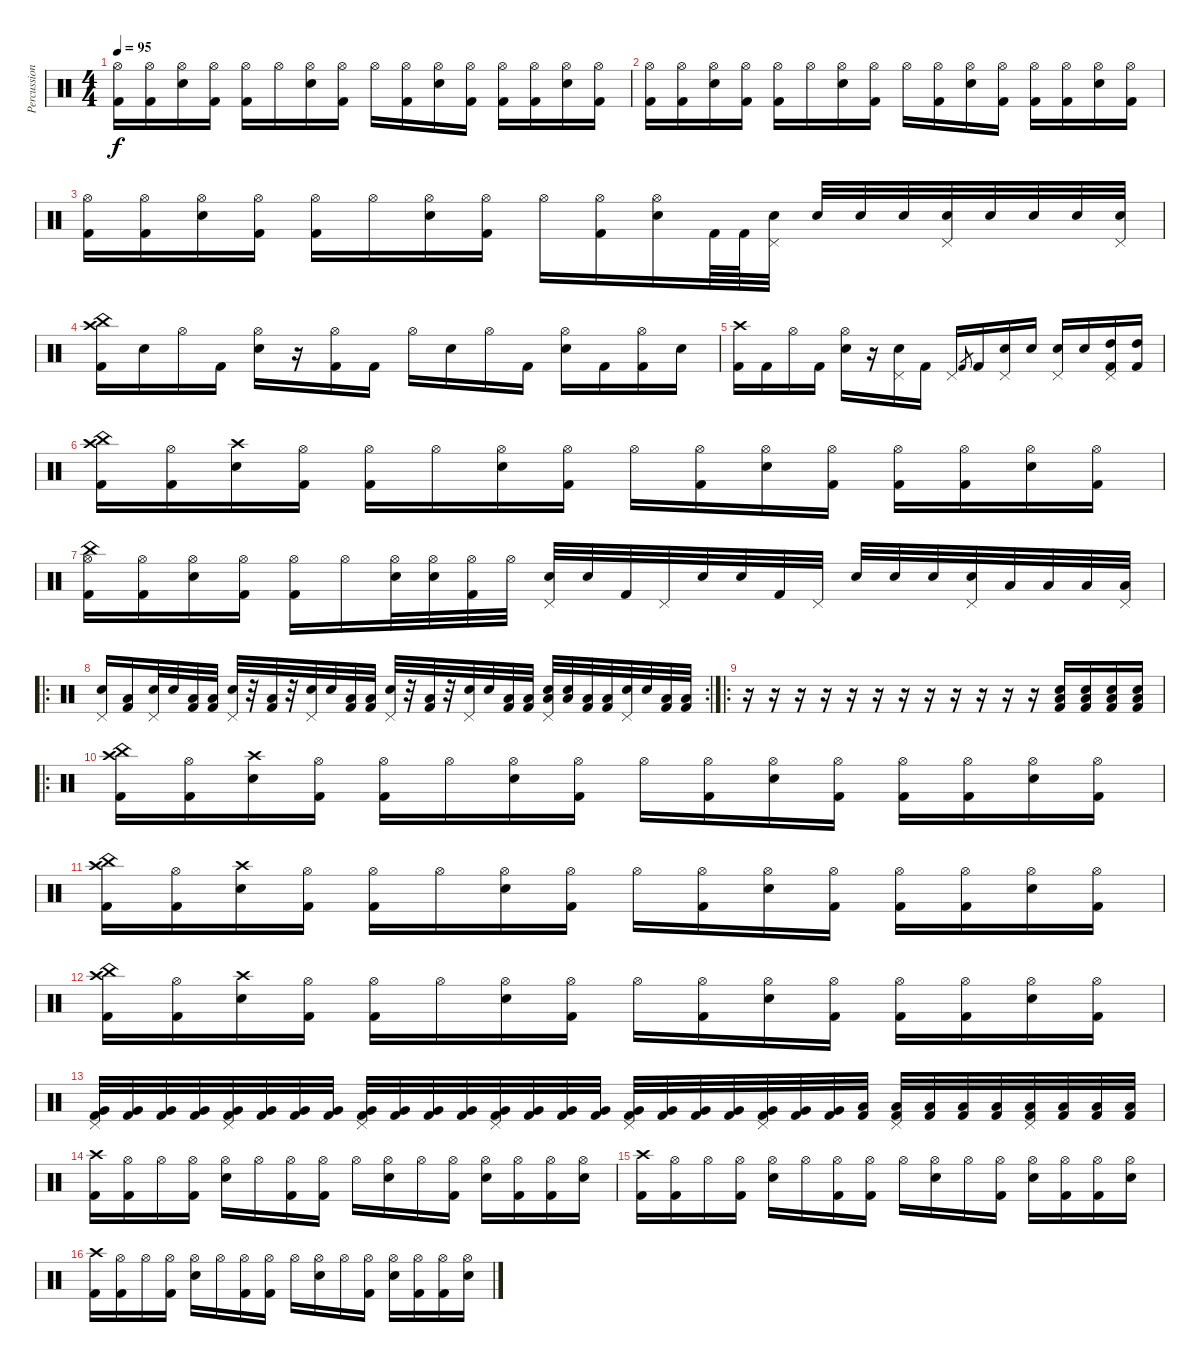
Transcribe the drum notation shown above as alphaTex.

\track ("Percussion" "Percussion") {instrument percussion}
\staff {score}
\articulation defaults
\ts (4 4)
\tempo 95
\clef neutral
\ks c
("Hi-Hat (open)" "Kick (hit) 2").16{dy f} ("Hi-Hat (open)" "Kick (hit) 2").16 ("Hi-Hat (open)" "Electric Snare (hit)").16 ("Hi-Hat (open)" "Kick (hit) 2").16 ("Hi-Hat (open)" "Kick (hit) 2").16 "Hi-Hat (open)".16 ("Hi-Hat (open)" "Electric Snare (hit)").16 ("Hi-Hat (open)" "Kick (hit) 2").16 "Hi-Hat (open)".16 ("Hi-Hat (open)" "Kick (hit) 2").16 ("Hi-Hat (open)" "Electric Snare (hit)").16 ("Hi-Hat (open)" "Kick (hit) 2").16 ("Hi-Hat (open)" "Kick (hit) 2").16 ("Hi-Hat (open)" "Kick (hit) 2").16 ("Hi-Hat (open)" "Electric Snare (hit)").16 ("Hi-Hat (open)" "Kick (hit) 2").16 |
("Hi-Hat (open)" "Kick (hit) 2").16 ("Hi-Hat (open)" "Kick (hit) 2").16 ("Hi-Hat (open)" "Electric Snare (hit)").16 ("Hi-Hat (open)" "Kick (hit) 2").16 ("Hi-Hat (open)" "Kick (hit) 2").16 "Hi-Hat (open)".16 ("Hi-Hat (open)" "Electric Snare (hit)").16 ("Hi-Hat (open)" "Kick (hit) 2").16 "Hi-Hat (open)".16 ("Hi-Hat (open)" "Kick (hit) 2").16 ("Hi-Hat (open)" "Electric Snare (hit)").16 ("Hi-Hat (open)" "Kick (hit) 2").16 ("Hi-Hat (open)" "Kick (hit) 2").16 ("Hi-Hat (open)" "Kick (hit) 2").16 ("Hi-Hat (open)" "Electric Snare (hit)").16 ("Hi-Hat (open)" "Kick (hit) 2").16 |
("Hi-Hat (open)" "Kick (hit) 2").16 ("Hi-Hat (open)" "Kick (hit) 2").16 ("Hi-Hat (open)" "Electric Snare (hit)").16 ("Hi-Hat (open)" "Kick (hit) 2").16 ("Hi-Hat (open)" "Kick (hit) 2").16 "Hi-Hat (open)".16 ("Hi-Hat (open)" "Electric Snare (hit)").16 ("Hi-Hat (open)" "Kick (hit) 2").16 "Hi-Hat (open)".16 ("Hi-Hat (open)" "Kick (hit) 2").16 ("Hi-Hat (open)" "Electric Snare (hit)").16 "Kick (hit) 2".64 "Kick (hit) 2".64 ("Pedal Hi-Hat (hit)" "Electric Snare (hit)").32 "Electric Snare (hit)".32 "Electric Snare (hit)".32 "Electric Snare (hit)".32 ("Pedal Hi-Hat (hit)" "Electric Snare (hit)").32 "Electric Snare (hit)".32 "Electric Snare (hit)".32 "Electric Snare (hit)".32 ("Pedal Hi-Hat (hit)" "Electric Snare (hit)").32 |
("Crash high (hit)" "China (hit)" "Kick (hit) 2").16 "Electric Snare (hit)".16 "Hi-Hat (open)".16 "Kick (hit) 2".16 ("Hi-Hat (open)" "Electric Snare (hit)").16 r.16 ("Hi-Hat (open)" "Kick (hit) 2").16 "Kick (hit) 2".16 "Hi-Hat (open)".16 "Electric Snare (hit)".16 "Hi-Hat (open)".16 "Kick (hit) 2".16 ("Hi-Hat (open)" "Electric Snare (hit)").16 "Kick (hit) 2".16 ("Hi-Hat (open)" "Kick (hit) 2").16 "Electric Snare (hit)".16 |
("Crash high (hit)" "Kick (hit) 2").16 "Kick (hit) 2".16 "Hi-Hat (open)".16 "Kick (hit) 2".16 ("Hi-Hat (open)" "Electric Snare (hit)").16 r.16 ("Pedal Hi-Hat (hit)" "Electric Snare (hit)").16 "Kick (hit) 2".16 "Pedal Hi-Hat (hit)".16 "Kick (hit) 2".8{gr} "Kick (hit) 2".16 ("Pedal Hi-Hat (hit)" "Electric Snare (hit)").16 "Electric Snare (hit)".16 ("Pedal Hi-Hat (hit)" "Electric Snare (hit)").16 "Electric Snare (hit)".16 ("Pedal Hi-Hat (hit)" "High Tom (hit)" "Kick (hit) 2").16 ("High Tom (hit)" "Kick (hit) 2").16 |
("China (hit)" "Crash high (hit)" "Kick (hit) 2").16 ("Hi-Hat (open)" "Kick (hit) 2").16 ("Crash high (hit)" "Electric Snare (hit)").16 ("Hi-Hat (open)" "Kick (hit) 2").16 ("Hi-Hat (open)" "Kick (hit) 2").16 "Hi-Hat (open)".16 ("Hi-Hat (open)" "Electric Snare (hit)").16 ("Hi-Hat (open)" "Kick (hit) 2").16 "Hi-Hat (open)".16 ("Hi-Hat (open)" "Kick (hit) 2").16 ("Hi-Hat (open)" "Electric Snare (hit)").16 ("Hi-Hat (open)" "Kick (hit) 2").16 ("Hi-Hat (open)" "Kick (hit) 2").16 ("Hi-Hat (open)" "Kick (hit) 2").16 ("Hi-Hat (open)" "Electric Snare (hit)").16 ("Hi-Hat (open)" "Kick (hit) 2").16 |
("China (hit)" "Hi-Hat (open)" "Kick (hit) 2").16 ("Hi-Hat (open)" "Kick (hit) 2").16 ("Hi-Hat (open)" "Electric Snare (hit)").16 ("Hi-Hat (open)" "Kick (hit) 2").16 ("Hi-Hat (open)" "Kick (hit) 2").16 "Hi-Hat (open)".16 ("Hi-Hat (open)" "Electric Snare (hit)").32 ("Hi-Hat (open)" "Electric Snare (hit)").32 ("Hi-Hat (open)" "Kick (hit) 2").32 "Hi-Hat (open)".32 ("Pedal Hi-Hat (hit)" "Electric Snare (hit)").32 "Electric Snare (hit)".32 "Kick (hit) 2".32 "Pedal Hi-Hat (hit)".32 "Electric Snare (hit)".32 "Electric Snare (hit)".32 "Kick (hit) 2".32 "Pedal Hi-Hat (hit)".32 "Electric Snare (hit)".32 "Electric Snare (hit)".32 "Electric Snare (hit)".32 ("Pedal Hi-Hat (hit)" "Electric Snare (hit)").32 "Low Tom (hit)".32 "Low Tom (hit)".32 "Low Tom (hit)".32 ("Pedal Hi-Hat (hit)" "Low Tom (hit)").32 |
\ro
\rc 2
("Pedal Hi-Hat (hit)" "Electric Snare (hit)").16 ("Low Floor Tom (hit)" "Kick (hit) 2").16 ("Pedal Hi-Hat (hit)" "Electric Snare (hit)").32 "Electric Snare (hit)".32 ("Low Floor Tom (hit)" "Kick (hit) 2").32 ("Low Floor Tom (hit)" "Kick (hit) 2").32 ("Pedal Hi-Hat (hit)" "Electric Snare (hit)").32 r.32 ("Low Floor Tom (hit)" "Kick (hit) 2").32 r.32 ("Pedal Hi-Hat (hit)" "Electric Snare (hit)").32 "Electric Snare (hit)".32 ("Low Floor Tom (hit)" "Kick (hit) 2").32 ("Low Floor Tom (hit)" "Kick (hit) 2").32 ("Pedal Hi-Hat (hit)" "Electric Snare (hit)").32 r.32 ("Low Floor Tom (hit)" "Kick (hit) 2").32 r.32 ("Pedal Hi-Hat (hit)" "Electric Snare (hit)").32 "Electric Snare (hit)".32 ("Low Floor Tom (hit)" "Kick (hit) 2").32 ("Low Floor Tom (hit)" "Kick (hit) 2").32 ("Pedal Hi-Hat (hit)" "Low Floor Tom (hit)" "Electric Snare (hit)").32 ("Low Floor Tom (hit)" "Electric Snare (hit)").32 ("Low Floor Tom (hit)" "Kick (hit) 2").32 ("Low Floor Tom (hit)" "Kick (hit) 2").32 ("Pedal Hi-Hat (hit)" "Electric Snare (hit)").32 "Electric Snare (hit)".32 ("Low Floor Tom (hit)" "Kick (hit) 2").32 ("Low Floor Tom (hit)" "Kick (hit) 2").32 |
\ro
r.16 r.16 r.16 r.16 r.16 r.16 r.16 r.16 r.16 r.16 r.16 r.16 ("Kick (hit) 2" "Low Floor Tom (hit)" "Electric Snare (hit)").16 ("Kick (hit) 2" "Low Floor Tom (hit)" "Electric Snare (hit)").16 ("Kick (hit) 2" "Low Floor Tom (hit)" "Electric Snare (hit)").16 ("Kick (hit) 2" "Low Floor Tom (hit)" "Electric Snare (hit)").16 |
\ro
("China (hit)" "Crash high (hit)" "Kick (hit) 2").16 ("Hi-Hat (open)" "Kick (hit) 2").16 ("Crash high (hit)" "Electric Snare (hit)").16 ("Hi-Hat (open)" "Kick (hit) 2").16 ("Hi-Hat (open)" "Kick (hit) 2").16 "Hi-Hat (open)".16 ("Hi-Hat (open)" "Electric Snare (hit)").16 ("Hi-Hat (open)" "Kick (hit) 2").16 "Hi-Hat (open)".16 ("Hi-Hat (open)" "Kick (hit) 2").16 ("Hi-Hat (open)" "Electric Snare (hit)").16 ("Hi-Hat (open)" "Kick (hit) 2").16 ("Hi-Hat (open)" "Kick (hit) 2").16 ("Hi-Hat (open)" "Kick (hit) 2").16 ("Hi-Hat (open)" "Electric Snare (hit)").16 ("Hi-Hat (open)" "Kick (hit) 2").16 |
("China (hit)" "Crash high (hit)" "Kick (hit) 2").16 ("Hi-Hat (open)" "Kick (hit) 2").16 ("Crash high (hit)" "Electric Snare (hit)").16 ("Hi-Hat (open)" "Kick (hit) 2").16 ("Hi-Hat (open)" "Kick (hit) 2").16 "Hi-Hat (open)".16 ("Hi-Hat (open)" "Electric Snare (hit)").16 ("Hi-Hat (open)" "Kick (hit) 2").16 "Hi-Hat (open)".16 ("Hi-Hat (open)" "Kick (hit) 2").16 ("Hi-Hat (open)" "Electric Snare (hit)").16 ("Hi-Hat (open)" "Kick (hit) 2").16 ("Hi-Hat (open)" "Kick (hit) 2").16 ("Hi-Hat (open)" "Kick (hit) 2").16 ("Hi-Hat (open)" "Electric Snare (hit)").16 ("Hi-Hat (open)" "Kick (hit) 2").16 |
("China (hit)" "Crash high (hit)" "Kick (hit) 2").16 ("Hi-Hat (open)" "Kick (hit) 2").16 ("Crash high (hit)" "Electric Snare (hit)").16 ("Hi-Hat (open)" "Kick (hit) 2").16 ("Hi-Hat (open)" "Kick (hit) 2").16 "Hi-Hat (open)".16 ("Hi-Hat (open)" "Electric Snare (hit)").16 ("Hi-Hat (open)" "Kick (hit) 2").16 "Hi-Hat (open)".16 ("Hi-Hat (open)" "Kick (hit) 2").16 ("Hi-Hat (open)" "Electric Snare (hit)").16 ("Hi-Hat (open)" "Kick (hit) 2").16 ("Hi-Hat (open)" "Kick (hit) 2").16 ("Hi-Hat (open)" "Kick (hit) 2").16 ("Hi-Hat (open)" "Electric Snare (hit)").16 ("Hi-Hat (open)" "Kick (hit) 2").16 |
("Pedal Hi-Hat (hit)" "Very Low Tom (hit)" "Kick (hit) 2").32 ("Very Low Tom (hit)" "Kick (hit) 2").32 ("Very Low Tom (hit)" "Kick (hit) 2").32 ("Very Low Tom (hit)" "Kick (hit) 2").32 ("Pedal Hi-Hat (hit)" "Very Low Tom (hit)" "Kick (hit) 2").32 ("Very Low Tom (hit)" "Kick (hit) 2").32 ("Very Low Tom (hit)" "Kick (hit) 2").32 ("Very Low Tom (hit)" "Kick (hit) 2").32 ("Pedal Hi-Hat (hit)" "Very Low Tom (hit)" "Kick (hit) 2").32 ("Very Low Tom (hit)" "Kick (hit) 2").32 ("Very Low Tom (hit)" "Kick (hit) 2").32 ("Very Low Tom (hit)" "Kick (hit) 2").32 ("Pedal Hi-Hat (hit)" "Very Low Tom (hit)" "Kick (hit) 2").32 ("Very Low Tom (hit)" "Kick (hit) 2").32 ("Very Low Tom (hit)" "Kick (hit) 2").32 ("Very Low Tom (hit)" "Kick (hit) 2").32 ("Pedal Hi-Hat (hit)" "Very Low Tom (hit)" "Kick (hit) 2").32 ("Very Low Tom (hit)" "Kick (hit) 2").32 ("Very Low Tom (hit)" "Kick (hit) 2").32 ("Very Low Tom (hit)" "Kick (hit) 2").32 ("Pedal Hi-Hat (hit)" "Very Low Tom (hit)" "Kick (hit) 2").32 ("Very Low Tom (hit)" "Kick (hit) 2").32 ("Very Low Tom (hit)" "Kick (hit) 2").32 ("Low Floor Tom (hit)" "Kick (hit) 2").32 ("Pedal Hi-Hat (hit)" "Low Floor Tom (hit)" "Kick (hit) 2").32 ("Low Floor Tom (hit)" "Kick (hit) 2").32 ("Low Floor Tom (hit)" "Kick (hit) 2").32 ("Low Floor Tom (hit)" "Kick (hit) 2").32 ("Pedal Hi-Hat (hit)" "Low Floor Tom (hit)" "Kick (hit) 2").32 ("Low Floor Tom (hit)" "Kick (hit) 2").32 ("Low Floor Tom (hit)" "Kick (hit) 2").32 ("Low Floor Tom (hit)" "Kick (hit) 2").32 |
("Crash high (hit)" "Kick (hit) 2").16 ("Hi-Hat (open)" "Kick (hit) 2").16 "Hi-Hat (open)".16 ("Hi-Hat (open)" "Kick (hit) 2").16 ("Hi-Hat (open)" "Electric Snare (hit)").16 "Hi-Hat (open)".16 ("Hi-Hat (open)" "Kick (hit) 2").16 ("Hi-Hat (open)" "Kick (hit) 2").16 "Hi-Hat (open)".16 ("Hi-Hat (open)" "Electric Snare (hit)").16 "Hi-Hat (open)".16 ("Hi-Hat (open)" "Kick (hit) 2").16 ("Hi-Hat (open)" "Electric Snare (hit)").16 ("Hi-Hat (open)" "Kick (hit) 2").16 ("Hi-Hat (open)" "Kick (hit) 2").16 ("Hi-Hat (open)" "Electric Snare (hit)").16 |
("Crash high (hit)" "Kick (hit) 2").16 ("Hi-Hat (open)" "Kick (hit) 2").16 "Hi-Hat (open)".16 ("Hi-Hat (open)" "Kick (hit) 2").16 ("Hi-Hat (open)" "Electric Snare (hit)").16 "Hi-Hat (open)".16 ("Hi-Hat (open)" "Kick (hit) 2").16 ("Hi-Hat (open)" "Kick (hit) 2").16 "Hi-Hat (open)".16 ("Hi-Hat (open)" "Electric Snare (hit)").16 "Hi-Hat (open)".16 ("Hi-Hat (open)" "Kick (hit) 2").16 ("Hi-Hat (open)" "Electric Snare (hit)").16 ("Hi-Hat (open)" "Kick (hit) 2").16 ("Hi-Hat (open)" "Kick (hit) 2").16 ("Hi-Hat (open)" "Electric Snare (hit)").16 |
("Crash high (hit)" "Kick (hit) 2").16 ("Hi-Hat (open)" "Kick (hit) 2").16 "Hi-Hat (open)".16 ("Hi-Hat (open)" "Kick (hit) 2").16 ("Hi-Hat (open)" "Electric Snare (hit)").16 "Hi-Hat (open)".16 ("Hi-Hat (open)" "Kick (hit) 2").16 ("Hi-Hat (open)" "Kick (hit) 2").16 "Hi-Hat (open)".16 ("Hi-Hat (open)" "Electric Snare (hit)").16 "Hi-Hat (open)".16 ("Hi-Hat (open)" "Kick (hit) 2").16 ("Hi-Hat (open)" "Electric Snare (hit)").16 ("Hi-Hat (open)" "Kick (hit) 2").16 ("Hi-Hat (open)" "Kick (hit) 2").16 ("Hi-Hat (open)" "Electric Snare (hit)").16
